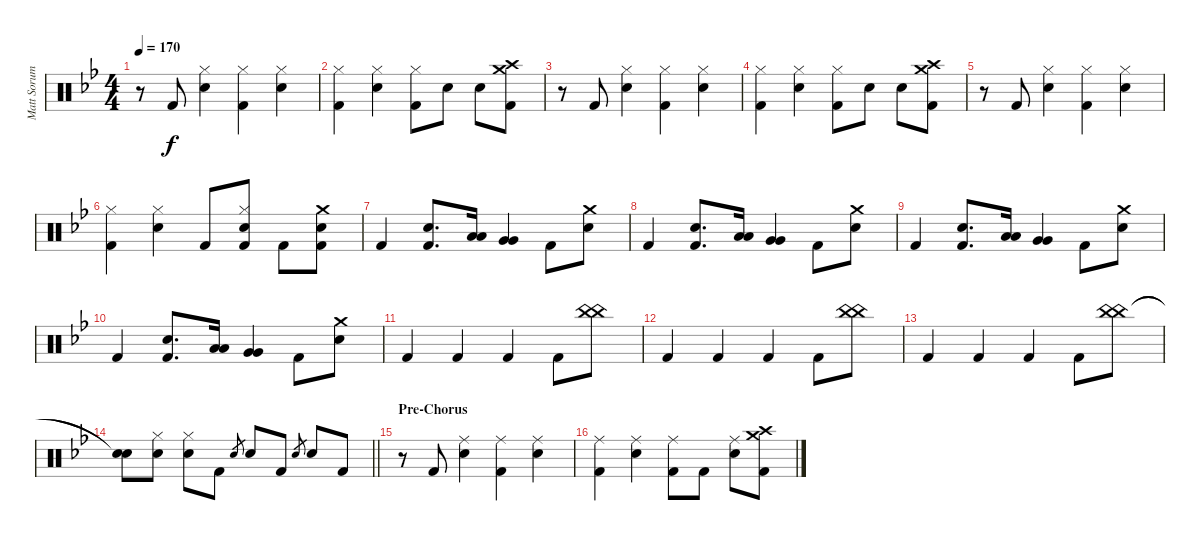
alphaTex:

\track ("Matt Sorum - Drums" "Matt Sorum") {instrument percussion}
\staff {score}
\articulation defaults
\ts (4 4)
\tempo 170
\clef neutral
\ks bb
r.8{dy f} "Kick (hit) 2".8 ("Hi-Hat (closed)" "Snare (hit) 2").4 ("Hi-Hat (closed)" "Kick (hit) 2").4 ("Hi-Hat (closed)" "Snare (hit) 2").4 |
("Hi-Hat (closed)" "Kick (hit) 2").4 ("Hi-Hat (closed)" "Snare (hit) 2").4 ("Hi-Hat (closed)" "Kick (hit) 2").8 "Snare (hit) 2".8 "Snare (hit) 2".8 ("Crash medium (hit)" "Crash high (hit)" "Kick (hit) 2").8 |
r.8 "Kick (hit) 2".8 ("Hi-Hat (closed)" "Snare (hit) 2").4 ("Hi-Hat (closed)" "Kick (hit) 2").4 ("Hi-Hat (closed)" "Snare (hit) 2").4 |
("Hi-Hat (closed)" "Kick (hit) 2").4 ("Hi-Hat (closed)" "Snare (hit) 2").4 ("Hi-Hat (closed)" "Kick (hit) 2").8 "Snare (hit) 2".8 "Snare (hit) 2".8 ("Crash medium (hit)" "Crash high (hit)" "Kick (hit) 2").8 |
r.8 "Kick (hit) 2".8 ("Hi-Hat (closed)" "Snare (hit) 2").4 ("Hi-Hat (closed)" "Kick (hit) 2").4 ("Hi-Hat (closed)" "Snare (hit) 2").4 |
("Hi-Hat (closed)" "Kick (hit) 2").4 ("Hi-Hat (closed)" "Snare (hit) 2").4 "Kick (hit) 2".8 ("Hi-Hat (closed)" "Snare (hit) 2" "Kick (hit) 2").8 "Kick (hit) 2".8 ("Crash medium (hit)" "Snare (hit) 2" "Kick (hit) 2").8 |
"Kick (hit) 2".4 ("Snare (hit) 2" "Kick (hit) 2").8{d} ("Low Tom (hit)" "Low Tom (hit)").16 ("Very Low Tom (hit)" "Very Low Tom (hit)").4 "Kick (hit) 2".8 ("Crash medium (hit)" "Snare (hit) 2").8 |
"Kick (hit) 2".4 ("Snare (hit) 2" "Kick (hit) 2").8{d} ("Low Tom (hit)" "Low Tom (hit)").16 ("Very Low Tom (hit)" "Very Low Tom (hit)").4 "Kick (hit) 2".8 ("Crash medium (hit)" "Snare (hit) 2").8 |
"Kick (hit) 2".4 ("Snare (hit) 2" "Kick (hit) 2").8{d} ("Low Tom (hit)" "Low Tom (hit)").16 ("Very Low Tom (hit)" "Very Low Tom (hit)").4 "Kick (hit) 2".8 ("Crash medium (hit)" "Snare (hit) 2").8 |
"Kick (hit) 2".4 ("Snare (hit) 2" "Kick (hit) 2").8{d} ("Low Tom (hit)" "Low Tom (hit)").16 ("Very Low Tom (hit)" "Very Low Tom (hit)").4 "Kick (hit) 2".8 ("Crash medium (hit)" "Snare (hit) 2").8 |
"Kick (hit) 2".4 "Kick (hit) 2".4 "Kick (hit) 2".4 "Kick (hit) 2".8 ("China (hit)" "China (hit)").8 |
"Kick (hit) 2".4 "Kick (hit) 2".4 "Kick (hit) 2".4 "Kick (hit) 2".8 ("China (hit)" "China (hit)").8 |
"Kick (hit) 2".4 "Kick (hit) 2".4 "Kick (hit) 2".4 "Kick (hit) 2".8 ("China (hit)" "China (hit)").8 |
\barLineRight lightlight
("Snare (hit)"{t} "Snare (hit)"{t}).8 ("Hi-Hat (closed)" "Snare (hit) 2").8 ("Hi-Hat (closed)" "Snare (hit) 2").8 "Kick (hit) 2".8 "Snare (hit) 2".8{gr} "Snare (hit) 2".8 "Kick (hit) 2".8 "Snare (hit) 2".8{gr} "Snare (hit) 2".8 "Kick (hit) 2".8 |
\section ("" "Pre-Chorus")
r.8 "Kick (hit) 2".8 ("Ride (middle)" "Snare (hit) 2").4 ("Ride (middle)" "Kick (hit) 2").4 ("Ride (middle)" "Snare (hit) 2").4 |
("Ride (middle)" "Kick (hit) 2").4 ("Ride (middle)" "Snare (hit) 2").4 ("Ride (middle)" "Kick (hit) 2").8 "Kick (hit) 2".8 ("Ride (middle)" "Snare (hit) 2").8 ("Crash medium (hit)" "Crash high (hit)" "Kick (hit) 2").8
